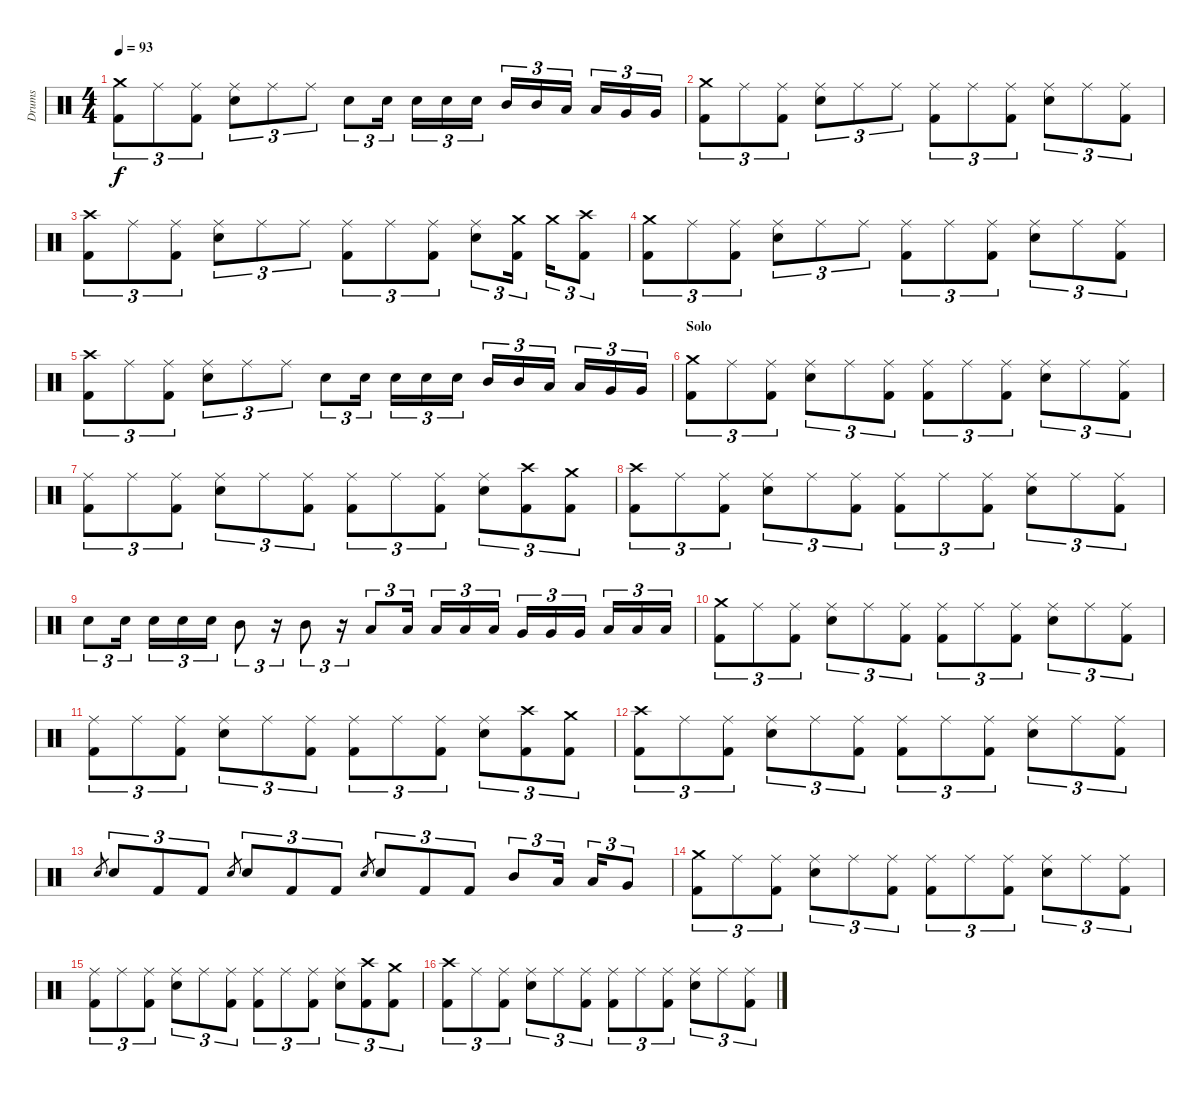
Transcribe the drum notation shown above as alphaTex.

\track ("Drums" "Drums") {instrument percussion}
\staff {score}
\articulation defaults
\ts (4 4)
\tempo 93
\clef neutral
\ks c
("Crash medium (hit)" "Kick (hit) 2").8{tu (3 2) dy f} "Ride (middle)".8{tu (3 2)} ("Ride (middle)" "Kick (hit) 2").8{tu (3 2)} ("Ride (middle)" "Snare (hit) 2").8{tu (3 2)} "Ride (middle)".8{tu (3 2)} "Ride (middle)".8{tu (3 2)} "Snare (hit) 2".8{tu (3 2)} "Snare (hit) 2".16{tu (3 2)} "Snare (hit) 2".16{tu (3 2)} "Snare (hit) 2".16{tu (3 2)} "Snare (hit) 2".16{tu (3 2)} "Mid Tom (hit)".16{tu (3 2)} "Mid Tom (hit)".16{tu (3 2)} "Low Tom (hit)".16{tu (3 2)} "Low Tom (hit)".16{tu (3 2)} "Very Low Tom (hit)".16{tu (3 2)} "Very Low Tom (hit)".16{tu (3 2)} |
("Crash medium (hit)" "Kick (hit) 2").8{tu (3 2)} "Ride (middle)".8{tu (3 2)} ("Ride (middle)" "Kick (hit) 2").8{tu (3 2)} ("Ride (middle)" "Snare (hit) 2").8{tu (3 2)} "Ride (middle)".8{tu (3 2)} "Ride (middle)".8{tu (3 2)} ("Ride (middle)" "Kick (hit) 2").8{tu (3 2)} "Ride (middle)".8{tu (3 2)} ("Ride (middle)" "Kick (hit) 2").8{tu (3 2)} ("Ride (middle)" "Snare (hit) 2").8{tu (3 2)} "Ride (middle)".8{tu (3 2)} ("Ride (middle)" "Kick (hit) 2").8{tu (3 2)} |
("Crash high (hit)" "Kick (hit) 2").8{tu (3 2)} "Ride (middle)".8{tu (3 2)} ("Ride (middle)" "Kick (hit) 2").8{tu (3 2)} ("Ride (middle)" "Snare (hit) 2").8{tu (3 2)} "Ride (middle)".8{tu (3 2)} "Ride (middle)".8{tu (3 2)} ("Ride (middle)" "Kick (hit) 2").8{tu (3 2)} "Ride (middle)".8{tu (3 2)} ("Ride (middle)" "Kick (hit) 2").8{tu (3 2)} ("Ride (middle)" "Snare (hit) 2").8{tu (3 2)} ("Crash medium (hit)" "Kick (hit) 2").16{tu (3 2)} "Crash medium (hit)".16{tu (3 2)} ("Crash high (hit)" "Kick (hit) 2").8{tu (3 2)} |
("Crash medium (hit)" "Kick (hit) 2").8{tu (3 2)} "Ride (middle)".8{tu (3 2)} ("Ride (middle)" "Kick (hit) 2").8{tu (3 2)} ("Ride (middle)" "Snare (hit) 2").8{tu (3 2)} "Ride (middle)".8{tu (3 2)} "Ride (middle)".8{tu (3 2)} ("Ride (middle)" "Kick (hit) 2").8{tu (3 2)} "Ride (middle)".8{tu (3 2)} ("Ride (middle)" "Kick (hit) 2").8{tu (3 2)} ("Ride (middle)" "Snare (hit) 2").8{tu (3 2)} "Ride (middle)".8{tu (3 2)} ("Ride (middle)" "Kick (hit) 2").8{tu (3 2)} |
("Crash high (hit)" "Kick (hit) 2").8{tu (3 2)} "Ride (middle)".8{tu (3 2)} ("Ride (middle)" "Kick (hit) 2").8{tu (3 2)} ("Ride (middle)" "Snare (hit) 2").8{tu (3 2)} "Ride (middle)".8{tu (3 2)} "Ride (middle)".8{tu (3 2)} "Snare (hit) 2".8{tu (3 2)} "Snare (hit) 2".16{tu (3 2)} "Snare (hit) 2".16{tu (3 2)} "Snare (hit) 2".16{tu (3 2)} "Snare (hit) 2".16{tu (3 2)} "Mid Tom (hit)".16{tu (3 2)} "Mid Tom (hit)".16{tu (3 2)} "Low Tom (hit)".16{tu (3 2)} "Low Tom (hit)".16{tu (3 2)} "Very Low Tom (hit)".16{tu (3 2)} "Very Low Tom (hit)".16{tu (3 2)} |
\section ("" "Solo ")
("Crash medium (hit)" "Kick (hit) 2").8{tu (3 2)} "Ride (middle)".8{tu (3 2)} ("Ride (middle)" "Kick (hit) 2").8{tu (3 2)} ("Ride (middle)" "Snare (hit) 2").8{tu (3 2)} "Ride (middle)".8{tu (3 2)} ("Ride (middle)" "Kick (hit) 2").8{tu (3 2)} ("Ride (middle)" "Kick (hit) 2").8{tu (3 2)} "Ride (middle)".8{tu (3 2)} ("Ride (middle)" "Kick (hit) 2").8{tu (3 2)} ("Ride (middle)" "Snare (hit) 2").8{tu (3 2)} "Ride (middle)".8{tu (3 2)} ("Ride (middle)" "Kick (hit) 2").8{tu (3 2)} |
("Ride (middle)" "Kick (hit) 2").8{tu (3 2)} "Ride (middle)".8{tu (3 2)} ("Ride (middle)" "Kick (hit) 2").8{tu (3 2)} ("Ride (middle)" "Snare (hit) 2").8{tu (3 2)} "Ride (middle)".8{tu (3 2)} ("Ride (middle)" "Kick (hit) 2").8{tu (3 2)} ("Ride (middle)" "Kick (hit) 2").8{tu (3 2)} "Ride (middle)".8{tu (3 2)} ("Ride (middle)" "Kick (hit) 2").8{tu (3 2)} ("Ride (middle)" "Snare (hit) 2").8{tu (3 2)} ("Crash high (hit)" "Kick (hit) 2").8{tu (3 2)} ("Crash medium (hit)" "Kick (hit) 2").8{tu (3 2)} |
("Crash high (hit)" "Kick (hit) 2").8{tu (3 2)} "Ride (middle)".8{tu (3 2)} ("Ride (middle)" "Kick (hit) 2").8{tu (3 2)} ("Ride (middle)" "Snare (hit) 2").8{tu (3 2)} "Ride (middle)".8{tu (3 2)} ("Ride (middle)" "Kick (hit) 2").8{tu (3 2)} ("Ride (middle)" "Kick (hit) 2").8{tu (3 2)} "Ride (middle)".8{tu (3 2)} ("Ride (middle)" "Kick (hit) 2").8{tu (3 2)} ("Ride (middle)" "Snare (hit) 2").8{tu (3 2)} "Ride (middle)".8{tu (3 2)} ("Ride (middle)" "Kick (hit) 2").8{tu (3 2)} |
"Snare (hit) 2".8{tu (3 2)} "Snare (hit) 2".16{tu (3 2)} "Snare (hit) 2".16{tu (3 2)} "Snare (hit) 2".16{tu (3 2)} "Snare (hit) 2".16{tu (3 2)} "Mid Tom (hit)".8{tu (3 2)} r.16{tu (3 2)} "Mid Tom (hit)".8{tu (3 2)} r.16{tu (3 2)} "Low Tom (hit)".8{tu (3 2)} "Low Tom (hit)".16{tu (3 2)} "Low Tom (hit)".16{tu (3 2)} "Low Tom (hit)".16{tu (3 2)} "Low Tom (hit)".16{tu (3 2)} "Very Low Tom (hit)".16{tu (3 2)} "Very Low Tom (hit)".16{tu (3 2)} "Very Low Tom (hit)".16{tu (3 2)} "Low Floor Tom (hit)".16{tu (3 2)} "Low Floor Tom (hit)".16{tu (3 2)} "Low Floor Tom (hit)".16{tu (3 2)} |
("Crash medium (hit)" "Kick (hit) 2").8{tu (3 2)} "Ride (middle)".8{tu (3 2)} ("Ride (middle)" "Kick (hit) 2").8{tu (3 2)} ("Ride (middle)" "Snare (hit) 2").8{tu (3 2)} "Ride (middle)".8{tu (3 2)} ("Ride (middle)" "Kick (hit) 2").8{tu (3 2)} ("Ride (middle)" "Kick (hit) 2").8{tu (3 2)} "Ride (middle)".8{tu (3 2)} ("Ride (middle)" "Kick (hit) 2").8{tu (3 2)} ("Ride (middle)" "Snare (hit) 2").8{tu (3 2)} "Ride (middle)".8{tu (3 2)} ("Ride (middle)" "Kick (hit) 2").8{tu (3 2)} |
("Ride (middle)" "Kick (hit) 2").8{tu (3 2)} "Ride (middle)".8{tu (3 2)} ("Ride (middle)" "Kick (hit) 2").8{tu (3 2)} ("Ride (middle)" "Snare (hit) 2").8{tu (3 2)} "Ride (middle)".8{tu (3 2)} ("Ride (middle)" "Kick (hit) 2").8{tu (3 2)} ("Ride (middle)" "Kick (hit) 2").8{tu (3 2)} "Ride (middle)".8{tu (3 2)} ("Ride (middle)" "Kick (hit) 2").8{tu (3 2)} ("Ride (middle)" "Snare (hit) 2").8{tu (3 2)} ("Crash high (hit)" "Kick (hit) 2").8{tu (3 2)} ("Crash medium (hit)" "Kick (hit) 2").8{tu (3 2)} |
("Crash high (hit)" "Kick (hit) 2").8{tu (3 2)} "Ride (middle)".8{tu (3 2)} ("Ride (middle)" "Kick (hit) 2").8{tu (3 2)} ("Ride (middle)" "Snare (hit) 2").8{tu (3 2)} "Ride (middle)".8{tu (3 2)} ("Ride (middle)" "Kick (hit) 2").8{tu (3 2)} ("Ride (middle)" "Kick (hit) 2").8{tu (3 2)} "Ride (middle)".8{tu (3 2)} ("Ride (middle)" "Kick (hit) 2").8{tu (3 2)} ("Ride (middle)" "Snare (hit) 2").8{tu (3 2)} "Ride (middle)".8{tu (3 2)} ("Ride (middle)" "Kick (hit) 2").8{tu (3 2)} |
"Snare (hit) 2".8{gr} "Snare (hit) 2".8{tu (3 2)} "Kick (hit) 2".8{tu (3 2)} "Kick (hit) 2".8{tu (3 2)} "Snare (hit) 2".8{gr} "Snare (hit) 2".8{tu (3 2)} "Kick (hit) 2".8{tu (3 2)} "Kick (hit) 2".8{tu (3 2)} "Snare (hit) 2".8{gr} "Snare (hit) 2".8{tu (3 2)} "Kick (hit) 2".8{tu (3 2)} "Kick (hit) 2".8{tu (3 2)} "Mid Tom (hit)".8{tu (3 2)} "Low Tom (hit)".16{tu (3 2)} "Low Tom (hit)".16{tu (3 2)} "Very Low Tom (hit)".8{tu (3 2)} |
("Crash medium (hit)" "Kick (hit) 2").8{tu (3 2)} "Ride (middle)".8{tu (3 2)} ("Ride (middle)" "Kick (hit) 2").8{tu (3 2)} ("Ride (middle)" "Snare (hit) 2").8{tu (3 2)} "Ride (middle)".8{tu (3 2)} ("Ride (middle)" "Kick (hit) 2").8{tu (3 2)} ("Ride (middle)" "Kick (hit) 2").8{tu (3 2)} "Ride (middle)".8{tu (3 2)} ("Ride (middle)" "Kick (hit) 2").8{tu (3 2)} ("Ride (middle)" "Snare (hit) 2").8{tu (3 2)} "Ride (middle)".8{tu (3 2)} ("Ride (middle)" "Kick (hit) 2").8{tu (3 2)} |
("Ride (middle)" "Kick (hit) 2").8{tu (3 2)} "Ride (middle)".8{tu (3 2)} ("Ride (middle)" "Kick (hit) 2").8{tu (3 2)} ("Ride (middle)" "Snare (hit) 2").8{tu (3 2)} "Ride (middle)".8{tu (3 2)} ("Ride (middle)" "Kick (hit) 2").8{tu (3 2)} ("Ride (middle)" "Kick (hit) 2").8{tu (3 2)} "Ride (middle)".8{tu (3 2)} ("Ride (middle)" "Kick (hit) 2").8{tu (3 2)} ("Ride (middle)" "Snare (hit) 2").8{tu (3 2)} ("Crash high (hit)" "Kick (hit) 2").8{tu (3 2)} ("Crash medium (hit)" "Kick (hit) 2").8{tu (3 2)} |
("Crash high (hit)" "Kick (hit) 2").8{tu (3 2)} "Ride (middle)".8{tu (3 2)} ("Ride (middle)" "Kick (hit) 2").8{tu (3 2)} ("Ride (middle)" "Snare (hit) 2").8{tu (3 2)} "Ride (middle)".8{tu (3 2)} ("Ride (middle)" "Kick (hit) 2").8{tu (3 2)} ("Ride (middle)" "Kick (hit) 2").8{tu (3 2)} "Ride (middle)".8{tu (3 2)} ("Ride (middle)" "Kick (hit) 2").8{tu (3 2)} ("Ride (middle)" "Snare (hit) 2").8{tu (3 2)} "Ride (middle)".8{tu (3 2)} ("Ride (middle)" "Kick (hit) 2").8{tu (3 2)}
